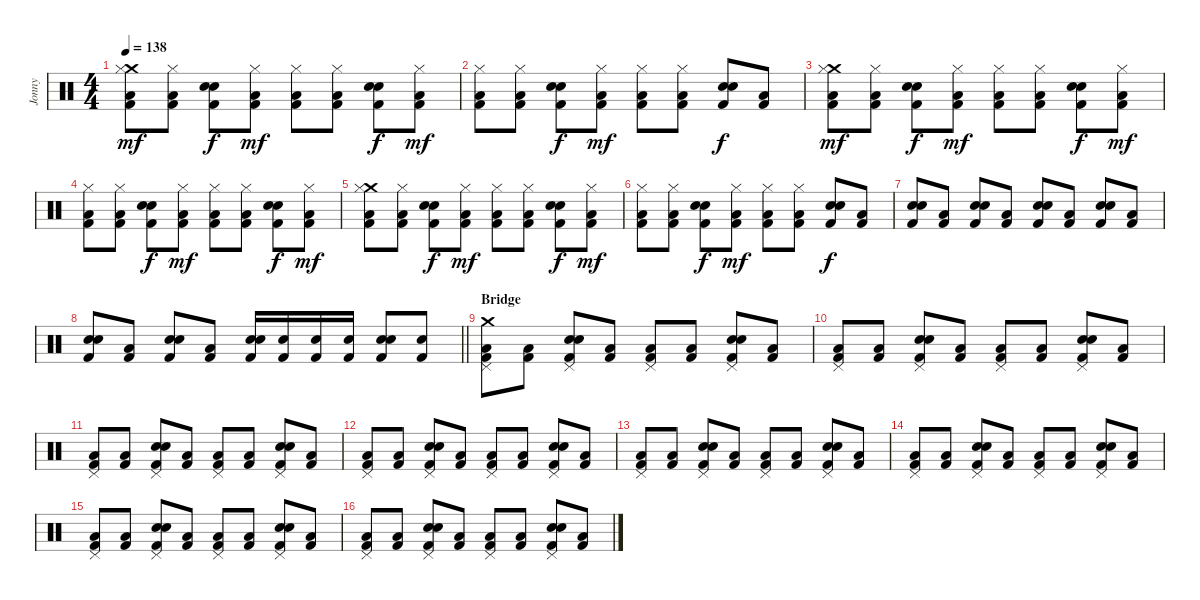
\track ("Jonny" "Jonny") {instrument percussion}
\staff {score}
\articulation defaults
\ts (4 4)
\tempo 138
\clef neutral
\ks c
("Crash medium (hit)" "Hi-Hat (closed)" "Low Floor Tom (hit)" "Kick (hit) 2").8{dy mf} ("Hi-Hat (closed)" "Low Floor Tom (hit)" "Kick (hit) 2").8 ("Electric Snare (hit)" "Electric Snare (hit)" "Kick (hit) 2").8{dy f} ("Hi-Hat (closed)" "Low Floor Tom (hit)" "Kick (hit) 2").8{dy mf} ("Hi-Hat (closed)" "Low Floor Tom (hit)" "Kick (hit) 2").8 ("Hi-Hat (closed)" "Low Floor Tom (hit)" "Kick (hit) 2").8 ("Electric Snare (hit)" "Electric Snare (hit)" "Kick (hit) 2").8{dy f} ("Hi-Hat (closed)" "Low Floor Tom (hit)" "Kick (hit) 2").8{dy mf} |
("Hi-Hat (closed)" "Low Floor Tom (hit)" "Kick (hit) 2").8 ("Hi-Hat (closed)" "Low Floor Tom (hit)" "Kick (hit) 2").8 ("Electric Snare (hit)" "Electric Snare (hit)" "Kick (hit) 2").8{dy f} ("Hi-Hat (closed)" "Low Floor Tom (hit)" "Kick (hit) 2").8{dy mf} ("Hi-Hat (closed)" "Low Floor Tom (hit)" "Kick (hit) 2").8 ("Hi-Hat (closed)" "Low Floor Tom (hit)" "Kick (hit) 2").8 ("Electric Snare (hit)" "Electric Snare (hit)" "Kick (hit) 2").8{dy f} ("Low Floor Tom (hit)" "Kick (hit) 2").8 |
("Crash medium (hit)" "Hi-Hat (closed)" "Low Floor Tom (hit)" "Kick (hit) 2").8{dy mf} ("Hi-Hat (closed)" "Low Floor Tom (hit)" "Kick (hit) 2").8 ("Electric Snare (hit)" "Electric Snare (hit)" "Kick (hit) 2").8{dy f} ("Hi-Hat (closed)" "Low Floor Tom (hit)" "Kick (hit) 2").8{dy mf} ("Hi-Hat (closed)" "Low Floor Tom (hit)" "Kick (hit) 2").8 ("Hi-Hat (closed)" "Low Floor Tom (hit)" "Kick (hit) 2").8 ("Electric Snare (hit)" "Electric Snare (hit)" "Kick (hit) 2").8{dy f} ("Hi-Hat (closed)" "Low Floor Tom (hit)" "Kick (hit) 2").8{dy mf} |
("Hi-Hat (closed)" "Low Floor Tom (hit)" "Kick (hit) 2").8 ("Hi-Hat (closed)" "Low Floor Tom (hit)" "Kick (hit) 2").8 ("Electric Snare (hit)" "Electric Snare (hit)" "Kick (hit) 2").8{dy f} ("Hi-Hat (closed)" "Low Floor Tom (hit)" "Kick (hit) 2").8{dy mf} ("Hi-Hat (closed)" "Low Floor Tom (hit)" "Kick (hit) 2").8 ("Hi-Hat (closed)" "Low Floor Tom (hit)" "Kick (hit) 2").8 ("Electric Snare (hit)" "Electric Snare (hit)" "Kick (hit) 2").8{dy f} ("Hi-Hat (closed)" "Low Floor Tom (hit)" "Kick (hit) 2").8{dy mf} |
("Crash medium (hit)" "Hi-Hat (closed)" "Low Floor Tom (hit)" "Kick (hit) 2").8 ("Hi-Hat (closed)" "Low Floor Tom (hit)" "Kick (hit) 2").8 ("Electric Snare (hit)" "Electric Snare (hit)" "Kick (hit) 2").8{dy f} ("Hi-Hat (closed)" "Low Floor Tom (hit)" "Kick (hit) 2").8{dy mf} ("Hi-Hat (closed)" "Low Floor Tom (hit)" "Kick (hit) 2").8 ("Hi-Hat (closed)" "Low Floor Tom (hit)" "Kick (hit) 2").8 ("Electric Snare (hit)" "Electric Snare (hit)" "Kick (hit) 2").8{dy f} ("Hi-Hat (closed)" "Low Floor Tom (hit)" "Kick (hit) 2").8{dy mf} |
("Hi-Hat (closed)" "Low Floor Tom (hit)" "Kick (hit) 2").8 ("Hi-Hat (closed)" "Low Floor Tom (hit)" "Kick (hit) 2").8 ("Electric Snare (hit)" "Electric Snare (hit)" "Kick (hit) 2").8{dy f} ("Hi-Hat (closed)" "Low Floor Tom (hit)" "Kick (hit) 2").8{dy mf} ("Hi-Hat (closed)" "Low Floor Tom (hit)" "Kick (hit) 2").8 ("Hi-Hat (closed)" "Low Floor Tom (hit)" "Kick (hit) 2").8 ("Electric Snare (hit)" "Electric Snare (hit)" "Kick (hit) 2").8{dy f} ("Low Floor Tom (hit)" "Kick (hit) 2").8 |
("Electric Snare (hit)" "Electric Snare (hit)" "Kick (hit) 2").8 ("Low Floor Tom (hit)" "Kick (hit) 2").8 ("Electric Snare (hit)" "Electric Snare (hit)" "Kick (hit) 2").8 ("Low Floor Tom (hit)" "Kick (hit) 2").8 ("Electric Snare (hit)" "Electric Snare (hit)" "Kick (hit) 2").8 ("Low Floor Tom (hit)" "Kick (hit) 2").8 ("Electric Snare (hit)" "Electric Snare (hit)" "Kick (hit) 2").8 ("Low Floor Tom (hit)" "Kick (hit) 2").8 |
\barLineRight lightlight
("Electric Snare (hit)" "Electric Snare (hit)" "Kick (hit) 2").8 ("Low Floor Tom (hit)" "Kick (hit) 2").8 ("Electric Snare (hit)" "Electric Snare (hit)" "Kick (hit) 2").8 ("Low Floor Tom (hit)" "Kick (hit) 2").8 ("Electric Snare (hit)" "Electric Snare (hit)" "Kick (hit) 2").16 ("Electric Snare (hit)" "Kick (hit) 2").16 ("Electric Snare (hit)" "Kick (hit) 2").16 ("Electric Snare (hit)" "Kick (hit) 2").16 ("Electric Snare (hit)" "Electric Snare (hit)" "Kick (hit) 2").8 ("Electric Snare (hit)" "Kick (hit) 2").8 |
\section ("" "Bridge")
("Pedal Hi-Hat (hit)" "Crash medium (hit)" "Low Floor Tom (hit)" "Kick (hit) 2").8 ("Low Floor Tom (hit)" "Kick (hit) 2").8 ("Pedal Hi-Hat (hit)" "Electric Snare (hit)" "Electric Snare (hit)" "Kick (hit) 2").8 ("Low Floor Tom (hit)" "Kick (hit) 2").8 ("Pedal Hi-Hat (hit)" "Low Floor Tom (hit)" "Kick (hit) 2").8 ("Low Floor Tom (hit)" "Kick (hit) 2").8 ("Pedal Hi-Hat (hit)" "Electric Snare (hit)" "Electric Snare (hit)" "Kick (hit) 2").8 ("Low Floor Tom (hit)" "Kick (hit) 2").8 |
("Pedal Hi-Hat (hit)" "Low Floor Tom (hit)" "Kick (hit) 2").8 ("Low Floor Tom (hit)" "Kick (hit) 2").8 ("Pedal Hi-Hat (hit)" "Electric Snare (hit)" "Electric Snare (hit)" "Kick (hit) 2").8 ("Low Floor Tom (hit)" "Kick (hit) 2").8 ("Pedal Hi-Hat (hit)" "Low Floor Tom (hit)" "Kick (hit) 2").8 ("Low Floor Tom (hit)" "Kick (hit) 2").8 ("Pedal Hi-Hat (hit)" "Electric Snare (hit)" "Electric Snare (hit)" "Kick (hit) 2").8 ("Low Floor Tom (hit)" "Kick (hit) 2").8 |
("Pedal Hi-Hat (hit)" "Low Floor Tom (hit)" "Kick (hit) 2").8 ("Low Floor Tom (hit)" "Kick (hit) 2").8 ("Pedal Hi-Hat (hit)" "Electric Snare (hit)" "Electric Snare (hit)" "Kick (hit) 2").8 ("Low Floor Tom (hit)" "Kick (hit) 2").8 ("Pedal Hi-Hat (hit)" "Low Floor Tom (hit)" "Kick (hit) 2").8 ("Low Floor Tom (hit)" "Kick (hit) 2").8 ("Pedal Hi-Hat (hit)" "Electric Snare (hit)" "Electric Snare (hit)" "Kick (hit) 2").8 ("Low Floor Tom (hit)" "Kick (hit) 2").8 |
("Pedal Hi-Hat (hit)" "Low Floor Tom (hit)" "Kick (hit) 2").8 ("Low Floor Tom (hit)" "Kick (hit) 2").8 ("Pedal Hi-Hat (hit)" "Electric Snare (hit)" "Electric Snare (hit)" "Kick (hit) 2").8 ("Low Floor Tom (hit)" "Kick (hit) 2").8 ("Pedal Hi-Hat (hit)" "Low Floor Tom (hit)" "Kick (hit) 2").8 ("Low Floor Tom (hit)" "Kick (hit) 2").8 ("Pedal Hi-Hat (hit)" "Electric Snare (hit)" "Electric Snare (hit)" "Kick (hit) 2").8 ("Low Floor Tom (hit)" "Kick (hit) 2").8 |
("Pedal Hi-Hat (hit)" "Low Floor Tom (hit)" "Kick (hit) 2").8 ("Low Floor Tom (hit)" "Kick (hit) 2").8 ("Pedal Hi-Hat (hit)" "Electric Snare (hit)" "Electric Snare (hit)" "Kick (hit) 2").8 ("Low Floor Tom (hit)" "Kick (hit) 2").8 ("Pedal Hi-Hat (hit)" "Low Floor Tom (hit)" "Kick (hit) 2").8 ("Low Floor Tom (hit)" "Kick (hit) 2").8 ("Pedal Hi-Hat (hit)" "Electric Snare (hit)" "Electric Snare (hit)" "Kick (hit) 2").8 ("Low Floor Tom (hit)" "Kick (hit) 2").8 |
("Pedal Hi-Hat (hit)" "Low Floor Tom (hit)" "Kick (hit) 2").8 ("Low Floor Tom (hit)" "Kick (hit) 2").8 ("Pedal Hi-Hat (hit)" "Electric Snare (hit)" "Electric Snare (hit)" "Kick (hit) 2").8 ("Low Floor Tom (hit)" "Kick (hit) 2").8 ("Pedal Hi-Hat (hit)" "Low Floor Tom (hit)" "Kick (hit) 2").8 ("Low Floor Tom (hit)" "Kick (hit) 2").8 ("Pedal Hi-Hat (hit)" "Electric Snare (hit)" "Electric Snare (hit)" "Kick (hit) 2").8 ("Low Floor Tom (hit)" "Kick (hit) 2").8 |
("Pedal Hi-Hat (hit)" "Low Floor Tom (hit)" "Kick (hit) 2").8 ("Low Floor Tom (hit)" "Kick (hit) 2").8 ("Pedal Hi-Hat (hit)" "Electric Snare (hit)" "Electric Snare (hit)" "Kick (hit) 2").8 ("Low Floor Tom (hit)" "Kick (hit) 2").8 ("Pedal Hi-Hat (hit)" "Low Floor Tom (hit)" "Kick (hit) 2").8 ("Low Floor Tom (hit)" "Kick (hit) 2").8 ("Pedal Hi-Hat (hit)" "Electric Snare (hit)" "Electric Snare (hit)" "Kick (hit) 2").8 ("Low Floor Tom (hit)" "Kick (hit) 2").8 |
("Pedal Hi-Hat (hit)" "Low Floor Tom (hit)" "Kick (hit) 2").8 ("Low Floor Tom (hit)" "Kick (hit) 2").8 ("Pedal Hi-Hat (hit)" "Electric Snare (hit)" "Electric Snare (hit)" "Kick (hit) 2").8 ("Low Floor Tom (hit)" "Kick (hit) 2").8 ("Pedal Hi-Hat (hit)" "Low Floor Tom (hit)" "Kick (hit) 2").8 ("Low Floor Tom (hit)" "Kick (hit) 2").8 ("Pedal Hi-Hat (hit)" "Electric Snare (hit)" "Electric Snare (hit)" "Kick (hit) 2").8 ("Low Floor Tom (hit)" "Kick (hit) 2").8
